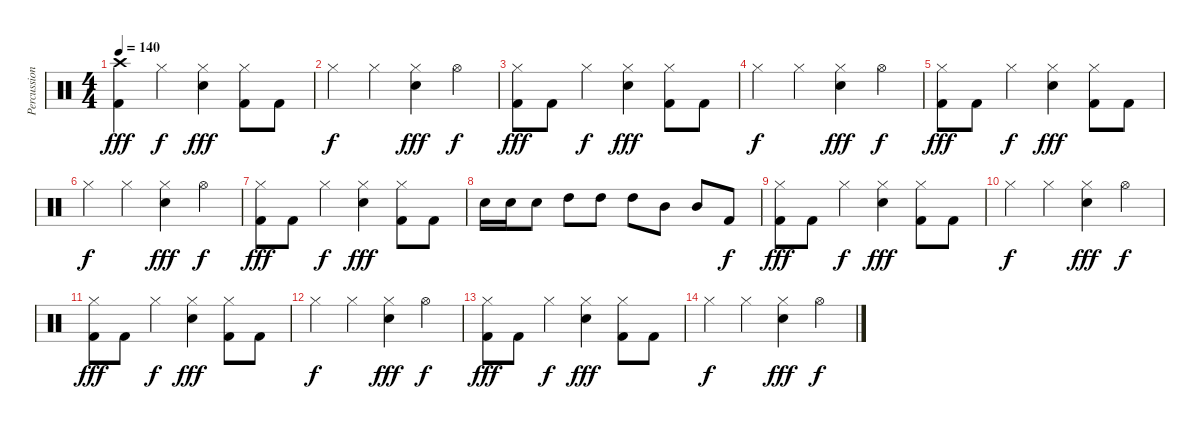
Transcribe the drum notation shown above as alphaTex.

\track ("Percussion" "Percussion") {instrument percussion}
\staff {score}
\articulation defaults
\ts (4 4)
\tempo 140
\clef neutral
\ks c
("Crash high (hit)" "Kick (hit) 2").4{dy fff} "Hi-Hat (closed)".4{dy f} ("Hi-Hat (closed)" "Electric Snare (hit)").4{dy fff} ("Hi-Hat (closed)" "Kick (hit) 2").8 "Kick (hit) 2".8 |
"Hi-Hat (closed)".4{dy f} "Hi-Hat (closed)".4 ("Hi-Hat (closed)" "Electric Snare (hit)").4{dy fff} "Hi-Hat (open)".4{dy f} |
("Hi-Hat (closed)" "Kick (hit) 2").8{dy fff} "Kick (hit) 2".8 "Hi-Hat (closed)".4{dy f} ("Hi-Hat (closed)" "Electric Snare (hit)").4{dy fff} ("Hi-Hat (closed)" "Kick (hit) 2").8 "Kick (hit) 2".8 |
"Hi-Hat (closed)".4{dy f} "Hi-Hat (closed)".4 ("Hi-Hat (closed)" "Electric Snare (hit)").4{dy fff} "Hi-Hat (open)".4{dy f} |
("Hi-Hat (closed)" "Kick (hit) 2").8{dy fff} "Kick (hit) 2".8 "Hi-Hat (closed)".4{dy f} ("Hi-Hat (closed)" "Electric Snare (hit)").4{dy fff} ("Hi-Hat (closed)" "Kick (hit) 2").8 "Kick (hit) 2".8 |
"Hi-Hat (closed)".4{dy f} "Hi-Hat (closed)".4 ("Hi-Hat (closed)" "Electric Snare (hit)").4{dy fff} "Hi-Hat (open)".4{dy f} |
("Hi-Hat (closed)" "Kick (hit) 2").8{dy fff} "Kick (hit) 2".8 "Hi-Hat (closed)".4{dy f} ("Hi-Hat (closed)" "Electric Snare (hit)").4{dy fff} ("Hi-Hat (closed)" "Kick (hit) 2").8 "Kick (hit) 2".8 |
"Electric Snare (hit)".16 "Electric Snare (hit)".16 "Electric Snare (hit)".8 "High Tom (hit)".8 "High Tom (hit)".8 "High Tom (hit)".8 "Mid Tom (hit)".8 "Mid Tom (hit)".8 "Kick (hit) 2".8{dy f} |
("Hi-Hat (closed)" "Kick (hit) 2").8{dy fff} "Kick (hit) 2".8 "Hi-Hat (closed)".4{dy f} ("Hi-Hat (closed)" "Electric Snare (hit)").4{dy fff} ("Hi-Hat (closed)" "Kick (hit) 2").8 "Kick (hit) 2".8 |
"Hi-Hat (closed)".4{dy f} "Hi-Hat (closed)".4 ("Hi-Hat (closed)" "Electric Snare (hit)").4{dy fff} "Hi-Hat (open)".4{dy f} |
("Hi-Hat (closed)" "Kick (hit) 2").8{dy fff} "Kick (hit) 2".8 "Hi-Hat (closed)".4{dy f} ("Hi-Hat (closed)" "Electric Snare (hit)").4{dy fff} ("Hi-Hat (closed)" "Kick (hit) 2").8 "Kick (hit) 2".8 |
"Hi-Hat (closed)".4{dy f} "Hi-Hat (closed)".4 ("Hi-Hat (closed)" "Electric Snare (hit)").4{dy fff} "Hi-Hat (open)".4{dy f} |
("Hi-Hat (closed)" "Kick (hit) 2").8{dy fff} "Kick (hit) 2".8 "Hi-Hat (closed)".4{dy f} ("Hi-Hat (closed)" "Electric Snare (hit)").4{dy fff} ("Hi-Hat (closed)" "Kick (hit) 2").8 "Kick (hit) 2".8 |
"Hi-Hat (closed)".4{dy f} "Hi-Hat (closed)".4 ("Hi-Hat (closed)" "Electric Snare (hit)").4{dy fff} "Hi-Hat (open)".4{dy f}
